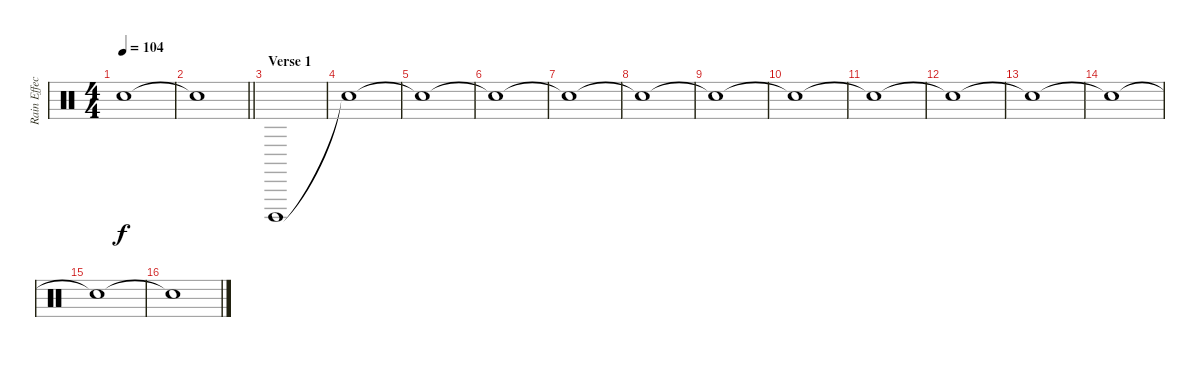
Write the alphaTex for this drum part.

\track ("Rain Effect" "Rain Effec") {instrument percussion}
\staff {score}
\articulation defaults
\ts (4 4)
\tempo 104
\clef neutral
\ks c "Snare (hit)"{t}.1{dy f}
|
\barLineRight lightlight "Snare (hit)"{t}.1
|
\section ("" "Verse 1")
"Cuica (open)".1 |
"Snare (hit)"{t}.1 |
"Snare (hit)"{t}.1 |
"Snare (hit)"{t}.1 |
"Snare (hit)"{t}.1 |
"Snare (hit)"{t}.1 |
"Snare (hit)"{t}.1 |
"Snare (hit)"{t}.1 |
"Snare (hit)"{t}.1 |
"Snare (hit)"{t}.1 |
"Snare (hit)"{t}.1 |
"Snare (hit)"{t}.1 |
"Snare (hit)"{t}.1 |
"Snare (hit)"{t}.1
